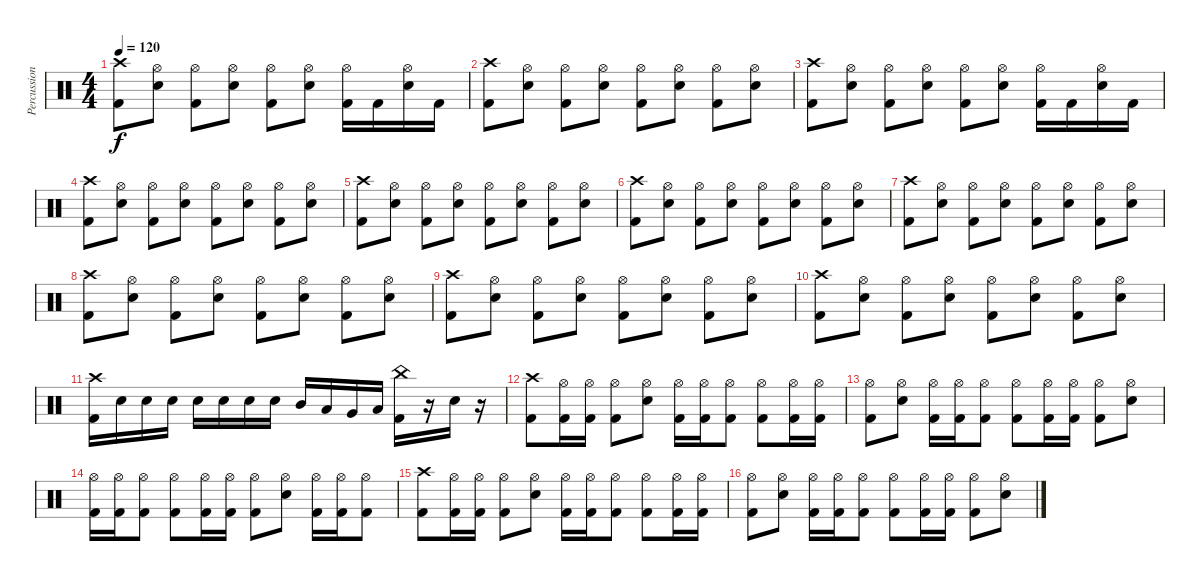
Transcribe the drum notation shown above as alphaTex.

\track ("Percussion" "Percussion") {instrument percussion}
\staff {score}
\articulation defaults
\ts (4 4)
\tempo 120
\clef neutral
\ks c
("Crash high (hit)" "Kick (hit) 2").8{dy f} ("Hi-Hat (open)" "Snare (hit) 2").8 ("Hi-Hat (open)" "Kick (hit) 2").8 ("Hi-Hat (open)" "Snare (hit) 2").8 ("Hi-Hat (open)" "Kick (hit) 2").8 ("Hi-Hat (open)" "Snare (hit) 2").8 ("Hi-Hat (open)" "Kick (hit) 2").16 "Kick (hit) 2".16 ("Hi-Hat (open)" "Snare (hit) 2").16 "Kick (hit) 2".16 |
("Crash high (hit)" "Kick (hit) 2").8 ("Hi-Hat (open)" "Snare (hit) 2").8 ("Hi-Hat (open)" "Kick (hit) 2").8 ("Hi-Hat (open)" "Snare (hit) 2").8 ("Hi-Hat (open)" "Kick (hit) 2").8 ("Hi-Hat (open)" "Snare (hit) 2").8 ("Hi-Hat (open)" "Kick (hit) 2").8 ("Hi-Hat (open)" "Snare (hit) 2").8 |
("Crash high (hit)" "Kick (hit) 2").8 ("Hi-Hat (open)" "Snare (hit) 2").8 ("Hi-Hat (open)" "Kick (hit) 2").8 ("Hi-Hat (open)" "Snare (hit) 2").8 ("Hi-Hat (open)" "Kick (hit) 2").8 ("Hi-Hat (open)" "Snare (hit) 2").8 ("Hi-Hat (open)" "Kick (hit) 2").16 "Kick (hit) 2".16 ("Hi-Hat (open)" "Snare (hit) 2").16 "Kick (hit) 2".16 |
("Crash high (hit)" "Kick (hit) 2").8 ("Hi-Hat (open)" "Snare (hit) 2").8 ("Hi-Hat (open)" "Kick (hit) 2").8 ("Hi-Hat (open)" "Snare (hit) 2").8 ("Hi-Hat (open)" "Kick (hit) 2").8 ("Hi-Hat (open)" "Snare (hit) 2").8 ("Hi-Hat (open)" "Kick (hit) 2").8 ("Hi-Hat (open)" "Snare (hit) 2").8 |
("Crash high (hit)" "Kick (hit) 2").8 ("Hi-Hat (open)" "Snare (hit) 2").8 ("Hi-Hat (open)" "Kick (hit) 2").8 ("Hi-Hat (open)" "Snare (hit) 2").8 ("Hi-Hat (open)" "Kick (hit) 2").8 ("Hi-Hat (open)" "Snare (hit) 2").8 ("Hi-Hat (open)" "Kick (hit) 2").8 ("Hi-Hat (open)" "Snare (hit) 2").8 |
("Crash high (hit)" "Kick (hit) 2").8 ("Hi-Hat (open)" "Snare (hit) 2").8 ("Hi-Hat (open)" "Kick (hit) 2").8 ("Hi-Hat (open)" "Snare (hit) 2").8 ("Hi-Hat (open)" "Kick (hit) 2").8 ("Hi-Hat (open)" "Snare (hit) 2").8 ("Hi-Hat (open)" "Kick (hit) 2").8 ("Hi-Hat (open)" "Snare (hit) 2").8 |
("Crash high (hit)" "Kick (hit) 2").8 ("Hi-Hat (open)" "Snare (hit) 2").8 ("Hi-Hat (open)" "Kick (hit) 2").8 ("Hi-Hat (open)" "Snare (hit) 2").8 ("Hi-Hat (open)" "Kick (hit) 2").8 ("Hi-Hat (open)" "Snare (hit) 2").8 ("Hi-Hat (open)" "Kick (hit) 2").8 ("Hi-Hat (open)" "Snare (hit) 2").8 |
("Crash high (hit)" "Kick (hit) 2").8 ("Hi-Hat (open)" "Snare (hit) 2").8 ("Hi-Hat (open)" "Kick (hit) 2").8 ("Hi-Hat (open)" "Snare (hit) 2").8 ("Hi-Hat (open)" "Kick (hit) 2").8 ("Hi-Hat (open)" "Snare (hit) 2").8 ("Hi-Hat (open)" "Kick (hit) 2").8 ("Hi-Hat (open)" "Snare (hit) 2").8 |
("Crash high (hit)" "Kick (hit) 2").8 ("Hi-Hat (open)" "Snare (hit) 2").8 ("Hi-Hat (open)" "Kick (hit) 2").8 ("Hi-Hat (open)" "Snare (hit) 2").8 ("Hi-Hat (open)" "Kick (hit) 2").8 ("Hi-Hat (open)" "Snare (hit) 2").8 ("Hi-Hat (open)" "Kick (hit) 2").8 ("Hi-Hat (open)" "Snare (hit) 2").8 |
("Crash high (hit)" "Kick (hit) 2").8 ("Hi-Hat (open)" "Snare (hit) 2").8 ("Hi-Hat (open)" "Kick (hit) 2").8 ("Hi-Hat (open)" "Snare (hit) 2").8 ("Hi-Hat (open)" "Kick (hit) 2").8 ("Hi-Hat (open)" "Snare (hit) 2").8 ("Hi-Hat (open)" "Kick (hit) 2").8 ("Hi-Hat (open)" "Snare (hit) 2").8 |
("Crash high (hit)" "Kick (hit) 2").16 "Snare (hit) 2".16 "Snare (hit) 2".16 "Snare (hit) 2".16 "Snare (hit) 2".16 "Snare (hit) 2".16 "Snare (hit) 2".16 "Snare (hit) 2".16 "Mid Tom (hit)".16 "Low Tom (hit)".16 "Very Low Tom (hit)".16 "Low Floor Tom (hit)".16 ("China (hit)" "Kick (hit) 2").16 r.16 "Snare (hit) 2".16 r.16 |
("Crash high (hit)" "Kick (hit) 2").8 ("Hi-Hat (open)" "Kick (hit) 2").16 ("Hi-Hat (open)" "Kick (hit) 2").16 ("Hi-Hat (open)" "Kick (hit) 2").8 ("Hi-Hat (open)" "Snare (hit) 2").8 ("Hi-Hat (open)" "Kick (hit) 2").16 ("Hi-Hat (open)" "Kick (hit) 2").16 ("Hi-Hat (open)" "Kick (hit) 2").8 ("Hi-Hat (open)" "Kick (hit) 2").8 ("Hi-Hat (open)" "Kick (hit) 2").16 ("Hi-Hat (open)" "Kick (hit) 2").16 |
("Hi-Hat (open)" "Kick (hit) 2").8 ("Hi-Hat (open)" "Snare (hit) 2").8 ("Hi-Hat (open)" "Kick (hit) 2").16 ("Hi-Hat (open)" "Kick (hit) 2").16 ("Hi-Hat (open)" "Kick (hit) 2").8 ("Hi-Hat (open)" "Kick (hit) 2").8 ("Hi-Hat (open)" "Kick (hit) 2").16 ("Hi-Hat (open)" "Kick (hit) 2").16 ("Hi-Hat (open)" "Kick (hit) 2").8 ("Hi-Hat (open)" "Snare (hit) 2").8 |
("Hi-Hat (open)" "Kick (hit) 2").16 ("Hi-Hat (open)" "Kick (hit) 2").16 ("Hi-Hat (open)" "Kick (hit) 2").8 ("Hi-Hat (open)" "Kick (hit) 2").8 ("Hi-Hat (open)" "Kick (hit) 2").16 ("Hi-Hat (open)" "Kick (hit) 2").16 ("Hi-Hat (open)" "Kick (hit) 2").8 ("Hi-Hat (open)" "Snare (hit) 2").8 ("Hi-Hat (open)" "Kick (hit) 2").16 ("Hi-Hat (open)" "Kick (hit) 2").16 ("Hi-Hat (open)" "Kick (hit) 2").8 |
("Crash high (hit)" "Kick (hit) 2").8 ("Hi-Hat (open)" "Kick (hit) 2").16 ("Hi-Hat (open)" "Kick (hit) 2").16 ("Hi-Hat (open)" "Kick (hit) 2").8 ("Hi-Hat (open)" "Snare (hit) 2").8 ("Hi-Hat (open)" "Kick (hit) 2").16 ("Hi-Hat (open)" "Kick (hit) 2").16 ("Hi-Hat (open)" "Kick (hit) 2").8 ("Hi-Hat (open)" "Kick (hit) 2").8 ("Hi-Hat (open)" "Kick (hit) 2").16 ("Hi-Hat (open)" "Kick (hit) 2").16 |
("Hi-Hat (open)" "Kick (hit) 2").8 ("Hi-Hat (open)" "Snare (hit) 2").8 ("Hi-Hat (open)" "Kick (hit) 2").16 ("Hi-Hat (open)" "Kick (hit) 2").16 ("Hi-Hat (open)" "Kick (hit) 2").8 ("Hi-Hat (open)" "Kick (hit) 2").8 ("Hi-Hat (open)" "Kick (hit) 2").16 ("Hi-Hat (open)" "Kick (hit) 2").16 ("Hi-Hat (open)" "Kick (hit) 2").8 ("Hi-Hat (open)" "Snare (hit) 2").8
